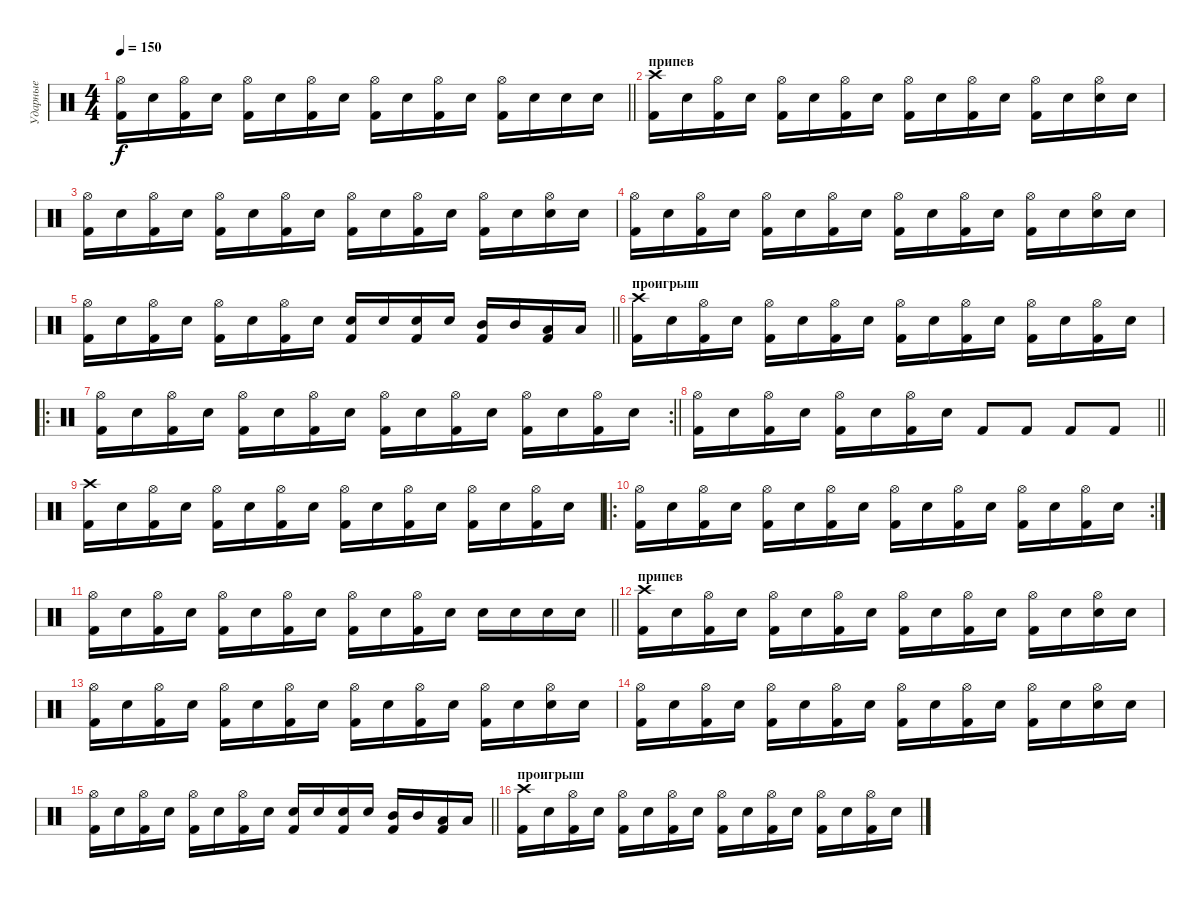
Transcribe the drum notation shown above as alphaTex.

\track ("Ударные" "Ударные") {instrument percussion}
\staff {score}
\articulation defaults
\ts (4 4)
\tempo 150
\clef neutral
\barLineRight lightlight
\ks c
("Hi-Hat (open)" "Kick (hit) 2").16{dy f} "Electric Snare (hit)".16 ("Hi-Hat (open)" "Kick (hit) 2").16 "Electric Snare (hit)".16 ("Hi-Hat (open)" "Kick (hit) 2").16 "Electric Snare (hit)".16 ("Hi-Hat (open)" "Kick (hit) 2").16 "Electric Snare (hit)".16 ("Hi-Hat (open)" "Kick (hit) 2").16 "Electric Snare (hit)".16 ("Hi-Hat (open)" "Kick (hit) 2").16 "Electric Snare (hit)".16 ("Hi-Hat (open)" "Kick (hit) 2").16 "Electric Snare (hit)".16 "Electric Snare (hit)".16 "Electric Snare (hit)".16 |
\section ("" "припев")
("Crash high (hit)" "Kick (hit) 2").16 "Electric Snare (hit)".16 ("Hi-Hat (open)" "Kick (hit) 2").16 "Electric Snare (hit)".16 ("Hi-Hat (open)" "Kick (hit) 2").16 "Electric Snare (hit)".16 ("Hi-Hat (open)" "Kick (hit) 2").16 "Electric Snare (hit)".16 ("Hi-Hat (open)" "Kick (hit) 2").16 "Electric Snare (hit)".16 ("Hi-Hat (open)" "Kick (hit) 2").16 "Electric Snare (hit)".16 ("Hi-Hat (open)" "Kick (hit) 2").16 "Electric Snare (hit)".16 ("Hi-Hat (open)" "Electric Snare (hit)").16 "Electric Snare (hit)".16 |
("Hi-Hat (open)" "Kick (hit) 2").16 "Electric Snare (hit)".16 ("Hi-Hat (open)" "Kick (hit) 2").16 "Electric Snare (hit)".16 ("Hi-Hat (open)" "Kick (hit) 2").16 "Electric Snare (hit)".16 ("Hi-Hat (open)" "Kick (hit) 2").16 "Electric Snare (hit)".16 ("Hi-Hat (open)" "Kick (hit) 2").16 "Electric Snare (hit)".16 ("Hi-Hat (open)" "Kick (hit) 2").16 "Electric Snare (hit)".16 ("Hi-Hat (open)" "Kick (hit) 2").16 "Electric Snare (hit)".16 ("Hi-Hat (open)" "Electric Snare (hit)").16 "Electric Snare (hit)".16 |
("Hi-Hat (open)" "Kick (hit) 2").16 "Electric Snare (hit)".16 ("Hi-Hat (open)" "Kick (hit) 2").16 "Electric Snare (hit)".16 ("Hi-Hat (open)" "Kick (hit) 2").16 "Electric Snare (hit)".16 ("Hi-Hat (open)" "Kick (hit) 2").16 "Electric Snare (hit)".16 ("Hi-Hat (open)" "Kick (hit) 2").16 "Electric Snare (hit)".16 ("Hi-Hat (open)" "Kick (hit) 2").16 "Electric Snare (hit)".16 ("Hi-Hat (open)" "Kick (hit) 2").16 "Electric Snare (hit)".16 ("Hi-Hat (open)" "Electric Snare (hit)").16 "Electric Snare (hit)".16 |
\barLineRight lightlight
("Hi-Hat (open)" "Kick (hit) 2").16 "Electric Snare (hit)".16 ("Hi-Hat (open)" "Kick (hit) 2").16 "Electric Snare (hit)".16 ("Hi-Hat (open)" "Kick (hit) 2").16 "Electric Snare (hit)".16 ("Hi-Hat (open)" "Kick (hit) 2").16 "Electric Snare (hit)".16 ("Electric Snare (hit)" "Kick (hit) 2").16 "Electric Snare (hit)".16 ("Electric Snare (hit)" "Kick (hit) 2").16 "Electric Snare (hit)".16 ("Mid Tom (hit)" "Kick (hit) 2").16 "Mid Tom (hit)".16 ("Low Tom (hit)" "Kick (hit) 2").16 "Low Tom (hit)".16 |
\section ("" "проигрыш")
("Crash high (hit)" "Kick (hit) 2").16 "Electric Snare (hit)".16 ("Hi-Hat (open)" "Kick (hit) 2").16 "Electric Snare (hit)".16 ("Hi-Hat (open)" "Kick (hit) 2").16 "Electric Snare (hit)".16 ("Hi-Hat (open)" "Kick (hit) 2").16 "Electric Snare (hit)".16 ("Hi-Hat (open)" "Kick (hit) 2").16 "Electric Snare (hit)".16 ("Hi-Hat (open)" "Kick (hit) 2").16 "Electric Snare (hit)".16 ("Hi-Hat (open)" "Kick (hit) 2").16 "Electric Snare (hit)".16 ("Hi-Hat (open)" "Kick (hit) 2").16 "Electric Snare (hit)".16 |
\ro
\rc 2
\barLineRight lightlight
("Hi-Hat (open)" "Kick (hit) 2").16 "Electric Snare (hit)".16 ("Hi-Hat (open)" "Kick (hit) 2").16 "Electric Snare (hit)".16 ("Hi-Hat (open)" "Kick (hit) 2").16 "Electric Snare (hit)".16 ("Hi-Hat (open)" "Kick (hit) 2").16 "Electric Snare (hit)".16 ("Hi-Hat (open)" "Kick (hit) 2").16 "Electric Snare (hit)".16 ("Hi-Hat (open)" "Kick (hit) 2").16 "Electric Snare (hit)".16 ("Hi-Hat (open)" "Kick (hit) 2").16 "Electric Snare (hit)".16 ("Hi-Hat (open)" "Kick (hit) 2").16 "Electric Snare (hit)".16 |
\barLineRight lightlight
("Hi-Hat (open)" "Kick (hit) 2").16 "Electric Snare (hit)".16 ("Hi-Hat (open)" "Kick (hit) 2").16 "Electric Snare (hit)".16 ("Hi-Hat (open)" "Kick (hit) 2").16 "Electric Snare (hit)".16 ("Hi-Hat (open)" "Kick (hit) 2").16 "Electric Snare (hit)".16 "Kick (hit) 2".8 "Kick (hit) 2".8 "Kick (hit) 2".8 "Kick (hit) 2".8 |
("Crash high (hit)" "Kick (hit) 2").16 "Electric Snare (hit)".16 ("Hi-Hat (open)" "Kick (hit) 2").16 "Electric Snare (hit)".16 ("Hi-Hat (open)" "Kick (hit) 2").16 "Electric Snare (hit)".16 ("Hi-Hat (open)" "Kick (hit) 2").16 "Electric Snare (hit)".16 ("Hi-Hat (open)" "Kick (hit) 2").16 "Electric Snare (hit)".16 ("Hi-Hat (open)" "Kick (hit) 2").16 "Electric Snare (hit)".16 ("Hi-Hat (open)" "Kick (hit) 2").16 "Electric Snare (hit)".16 ("Hi-Hat (open)" "Kick (hit) 2").16 "Electric Snare (hit)".16 |
\ro
\rc 2
("Hi-Hat (open)" "Kick (hit) 2").16 "Electric Snare (hit)".16 ("Hi-Hat (open)" "Kick (hit) 2").16 "Electric Snare (hit)".16 ("Hi-Hat (open)" "Kick (hit) 2").16 "Electric Snare (hit)".16 ("Hi-Hat (open)" "Kick (hit) 2").16 "Electric Snare (hit)".16 ("Hi-Hat (open)" "Kick (hit) 2").16 "Electric Snare (hit)".16 ("Hi-Hat (open)" "Kick (hit) 2").16 "Electric Snare (hit)".16 ("Hi-Hat (open)" "Kick (hit) 2").16 "Electric Snare (hit)".16 ("Hi-Hat (open)" "Kick (hit) 2").16 "Electric Snare (hit)".16 |
\barLineRight lightlight
("Hi-Hat (open)" "Kick (hit) 2").16 "Electric Snare (hit)".16 ("Hi-Hat (open)" "Kick (hit) 2").16 "Electric Snare (hit)".16 ("Hi-Hat (open)" "Kick (hit) 2").16 "Electric Snare (hit)".16 ("Hi-Hat (open)" "Kick (hit) 2").16 "Electric Snare (hit)".16 ("Hi-Hat (open)" "Kick (hit) 2").16 "Electric Snare (hit)".16 ("Hi-Hat (open)" "Kick (hit) 2").16 "Electric Snare (hit)".16 "Electric Snare (hit)".16 "Electric Snare (hit)".16 "Electric Snare (hit)".16 "Electric Snare (hit)".16 |
\section ("" "припев")
("Crash high (hit)" "Kick (hit) 2").16 "Electric Snare (hit)".16 ("Hi-Hat (open)" "Kick (hit) 2").16 "Electric Snare (hit)".16 ("Hi-Hat (open)" "Kick (hit) 2").16 "Electric Snare (hit)".16 ("Hi-Hat (open)" "Kick (hit) 2").16 "Electric Snare (hit)".16 ("Hi-Hat (open)" "Kick (hit) 2").16 "Electric Snare (hit)".16 ("Hi-Hat (open)" "Kick (hit) 2").16 "Electric Snare (hit)".16 ("Hi-Hat (open)" "Kick (hit) 2").16 "Electric Snare (hit)".16 ("Hi-Hat (open)" "Electric Snare (hit)").16 "Electric Snare (hit)".16 |
("Hi-Hat (open)" "Kick (hit) 2").16 "Electric Snare (hit)".16 ("Hi-Hat (open)" "Kick (hit) 2").16 "Electric Snare (hit)".16 ("Hi-Hat (open)" "Kick (hit) 2").16 "Electric Snare (hit)".16 ("Hi-Hat (open)" "Kick (hit) 2").16 "Electric Snare (hit)".16 ("Hi-Hat (open)" "Kick (hit) 2").16 "Electric Snare (hit)".16 ("Hi-Hat (open)" "Kick (hit) 2").16 "Electric Snare (hit)".16 ("Hi-Hat (open)" "Kick (hit) 2").16 "Electric Snare (hit)".16 ("Hi-Hat (open)" "Electric Snare (hit)").16 "Electric Snare (hit)".16 |
("Hi-Hat (open)" "Kick (hit) 2").16 "Electric Snare (hit)".16 ("Hi-Hat (open)" "Kick (hit) 2").16 "Electric Snare (hit)".16 ("Hi-Hat (open)" "Kick (hit) 2").16 "Electric Snare (hit)".16 ("Hi-Hat (open)" "Kick (hit) 2").16 "Electric Snare (hit)".16 ("Hi-Hat (open)" "Kick (hit) 2").16 "Electric Snare (hit)".16 ("Hi-Hat (open)" "Kick (hit) 2").16 "Electric Snare (hit)".16 ("Hi-Hat (open)" "Kick (hit) 2").16 "Electric Snare (hit)".16 ("Hi-Hat (open)" "Electric Snare (hit)").16 "Electric Snare (hit)".16 |
\barLineRight lightlight
("Hi-Hat (open)" "Kick (hit) 2").16 "Electric Snare (hit)".16 ("Hi-Hat (open)" "Kick (hit) 2").16 "Electric Snare (hit)".16 ("Hi-Hat (open)" "Kick (hit) 2").16 "Electric Snare (hit)".16 ("Hi-Hat (open)" "Kick (hit) 2").16 "Electric Snare (hit)".16 ("Electric Snare (hit)" "Kick (hit) 2").16 "Electric Snare (hit)".16 ("Electric Snare (hit)" "Kick (hit) 2").16 "Electric Snare (hit)".16 ("Mid Tom (hit)" "Kick (hit) 2").16 "Mid Tom (hit)".16 ("Low Tom (hit)" "Kick (hit) 2").16 "Low Tom (hit)".16 |
\section ("" "проигрыш")
("Crash high (hit)" "Kick (hit) 2").16 "Electric Snare (hit)".16 ("Hi-Hat (open)" "Kick (hit) 2").16 "Electric Snare (hit)".16 ("Hi-Hat (open)" "Kick (hit) 2").16 "Electric Snare (hit)".16 ("Hi-Hat (open)" "Kick (hit) 2").16 "Electric Snare (hit)".16 ("Hi-Hat (open)" "Kick (hit) 2").16 "Electric Snare (hit)".16 ("Hi-Hat (open)" "Kick (hit) 2").16 "Electric Snare (hit)".16 ("Hi-Hat (open)" "Kick (hit) 2").16 "Electric Snare (hit)".16 ("Hi-Hat (open)" "Kick (hit) 2").16 "Electric Snare (hit)".16
